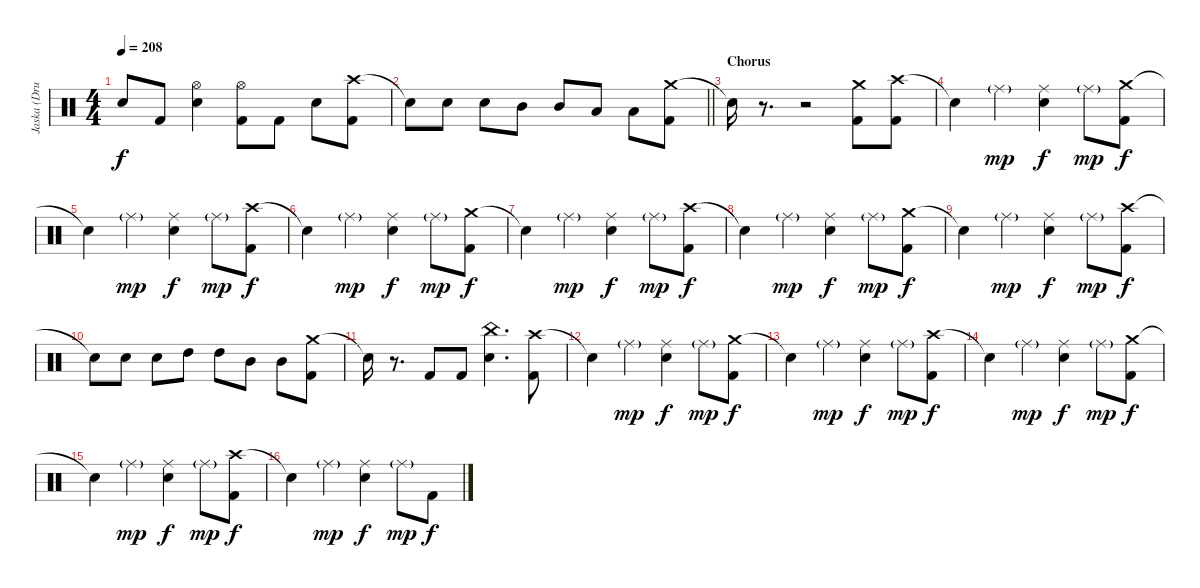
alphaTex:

\track ("Jaska (Drums)" "Jaska (Dru") {instrument percussion}
\staff {score}
\articulation defaults
\ts (4 4)
\tempo 208
\clef neutral
\ks c "Snare (hit)"{t}.8{dy f} "Kick (hit) 2".8
("Hi-Hat (open)" "Electric Snare (hit)").4 ("Hi-Hat (open)" "Kick (hit) 2").8 "Kick (hit) 2".8 "Electric Snare (hit)".8 ("Crash high (hit)" "Kick (hit) 2").8 |
\barLineRight lightlight "Snare (hit)"{t}.8 "Electric Snare (hit)".8 "Electric Snare (hit)".8 "Mid Tom (hit)".8 "Mid Tom (hit)".8 "Low Tom (hit)".8 "Low Tom (hit)".8
("Crash medium (hit)" "Kick (hit) 2").8 |
\section ("" "Chorus")
"Snare (hit)"{t}.16 r.8{d volume 0} r.2 ("Crash medium (hit)" "Kick (hit) 2").8{volume 16} ("Crash high (hit)" "Kick (hit) 2").8 |
"Snare (hit)"{t}.4 "Ride (middle)"{g}.4{dy mp} ("Ride (middle)" "Electric Snare (hit)").4{dy f} "Ride (middle)"{g}.8{dy mp} ("Crash medium (hit)" "Kick (hit) 2").8{dy f} |
"Snare (hit)"{t}.4 "Ride (middle)"{g}.4{dy mp} ("Ride (middle)" "Electric Snare (hit)").4{dy f} "Ride (middle)"{g}.8{dy mp} ("Crash high (hit)" "Kick (hit) 2").8{dy f} |
"Snare (hit)"{t}.4 "Ride (middle)"{g}.4{dy mp} ("Ride (middle)" "Electric Snare (hit)").4{dy f} "Ride (middle)"{g}.8{dy mp} ("Crash medium (hit)" "Kick (hit) 2").8{dy f} |
"Snare (hit)"{t}.4 "Ride (middle)"{g}.4{dy mp} ("Ride (middle)" "Electric Snare (hit)").4{dy f} "Ride (middle)"{g}.8{dy mp} ("Crash high (hit)" "Kick (hit) 2").8{dy f} |
"Snare (hit)"{t}.4 "Ride (middle)"{g}.4{dy mp} ("Ride (middle)" "Electric Snare (hit)").4{dy f} "Ride (middle)"{g}.8{dy mp} ("Crash medium (hit)" "Kick (hit) 2").8{dy f} |
"Snare (hit)"{t}.4 "Ride (middle)"{g}.4{dy mp} ("Ride (middle)" "Electric Snare (hit)").4{dy f} "Ride (middle)"{g}.8{dy mp} ("Crash high (hit)" "Kick (hit) 2").8{dy f} |
"Snare (hit)"{t}.8 "Electric Snare (hit)".8 "Electric Snare (hit)".8 "High Tom (hit)".8 "High Tom (hit)".8 "Mid Tom (hit)".8 "Mid Tom (hit)".8 ("Crash medium (hit)" "Kick (hit) 2").8 |
"Snare (hit)"{t}.16{volume 0} r.8{d} "Kick (hit) 2".8{volume 16} "Kick (hit) 2".8 ("China (hit)" "Electric Snare (hit)").4{d} ("Crash high (hit)" "Kick (hit) 2").8 |
"Snare (hit)"{t}.4 "Ride (middle)"{g}.4{dy mp} ("Ride (middle)" "Electric Snare (hit)").4{dy f} "Ride (middle)"{g}.8{dy mp} ("Crash medium (hit)" "Kick (hit) 2").8{dy f} |
"Snare (hit)"{t}.4 "Ride (middle)"{g}.4{dy mp} ("Ride (middle)" "Electric Snare (hit)").4{dy f} "Ride (middle)"{g}.8{dy mp} ("Crash high (hit)" "Kick (hit) 2").8{dy f} |
"Snare (hit)"{t}.4 "Ride (middle)"{g}.4{dy mp} ("Ride (middle)" "Electric Snare (hit)").4{dy f} "Ride (middle)"{g}.8{dy mp} ("Crash medium (hit)" "Kick (hit) 2").8{dy f} |
"Snare (hit)"{t}.4 "Ride (middle)"{g}.4{dy mp} ("Ride (middle)" "Electric Snare (hit)").4{dy f} "Ride (middle)"{g}.8{dy mp} ("Crash high (hit)" "Kick (hit) 2").8{dy f} |
"Snare (hit)"{t}.4 "Ride (middle)"{g}.4{dy mp} ("Ride (middle)" "Electric Snare (hit)").4{dy f} "Ride (middle)"{g}.8{dy mp} "Kick (hit) 2".8{dy f}
